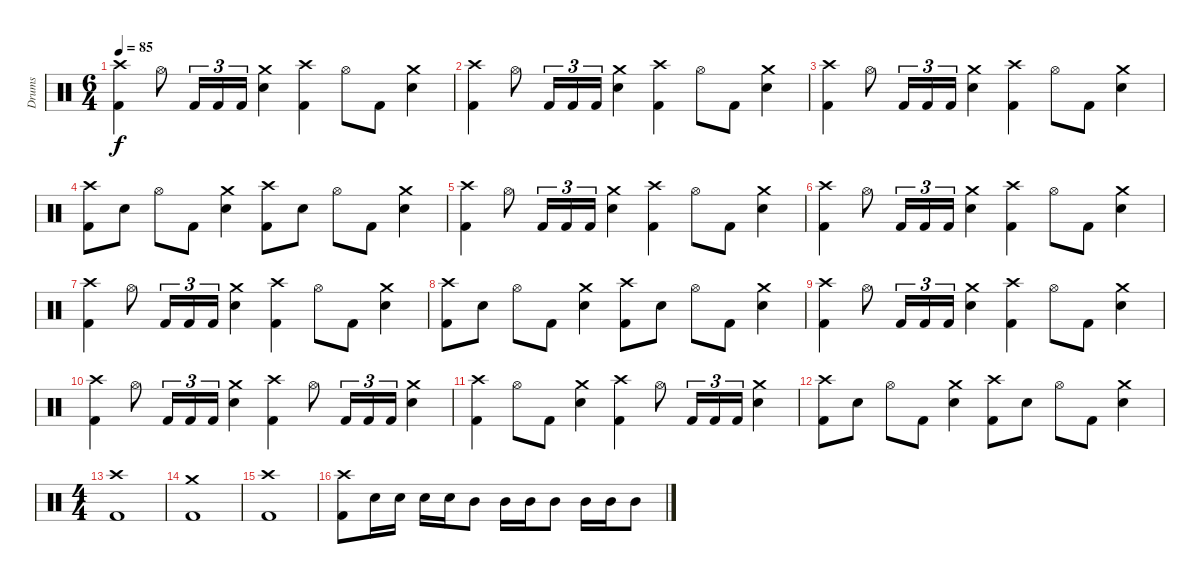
\track ("Drums" "Drums") {instrument percussion}
\staff {score}
\articulation defaults
\ts (6 4)
\tempo 85
\clef neutral
\ks c
("Crash high (hit)" "Kick (hit) 2").4{dy f} "Hi-Hat (open)".8 "Kick (hit) 2".16{tu (3 2)} "Kick (hit) 2".16{tu (3 2)} "Kick (hit) 2".16{tu (3 2)} ("Crash medium (hit)" "Electric Snare (hit)").4 ("Crash high (hit)" "Kick (hit) 2").4 "Hi-Hat (open)".8 "Kick (hit) 2".8 ("Crash medium (hit)" "Electric Snare (hit)").4 |
("Crash high (hit)" "Kick (hit) 2").4 "Hi-Hat (open)".8 "Kick (hit) 2".16{tu (3 2)} "Kick (hit) 2".16{tu (3 2)} "Kick (hit) 2".16{tu (3 2)} ("Crash medium (hit)" "Electric Snare (hit)").4 ("Crash high (hit)" "Kick (hit) 2").4 "Hi-Hat (open)".8 "Kick (hit) 2".8 ("Crash medium (hit)" "Electric Snare (hit)").4 |
("Crash high (hit)" "Kick (hit) 2").4 "Hi-Hat (open)".8 "Kick (hit) 2".16{tu (3 2)} "Kick (hit) 2".16{tu (3 2)} "Kick (hit) 2".16{tu (3 2)} ("Crash medium (hit)" "Electric Snare (hit)").4 ("Crash high (hit)" "Kick (hit) 2").4 "Hi-Hat (open)".8 "Kick (hit) 2".8 ("Crash medium (hit)" "Electric Snare (hit)").4 |
("Crash high (hit)" "Kick (hit) 2").8 "Electric Snare (hit)".8 "Hi-Hat (open)".8 "Kick (hit) 2".8 ("Crash medium (hit)" "Electric Snare (hit)").4 ("Crash high (hit)" "Kick (hit) 2").8 "Electric Snare (hit)".8 "Hi-Hat (open)".8 "Kick (hit) 2".8 ("Crash medium (hit)" "Electric Snare (hit)").4 |
("Crash high (hit)" "Kick (hit) 2").4 "Hi-Hat (open)".8 "Kick (hit) 2".16{tu (3 2)} "Kick (hit) 2".16{tu (3 2)} "Kick (hit) 2".16{tu (3 2)} ("Crash medium (hit)" "Electric Snare (hit)").4 ("Crash high (hit)" "Kick (hit) 2").4 "Hi-Hat (open)".8 "Kick (hit) 2".8 ("Crash medium (hit)" "Electric Snare (hit)").4 |
("Crash high (hit)" "Kick (hit) 2").4 "Hi-Hat (open)".8 "Kick (hit) 2".16{tu (3 2)} "Kick (hit) 2".16{tu (3 2)} "Kick (hit) 2".16{tu (3 2)} ("Crash medium (hit)" "Electric Snare (hit)").4 ("Crash high (hit)" "Kick (hit) 2").4 "Hi-Hat (open)".8 "Kick (hit) 2".8 ("Crash medium (hit)" "Electric Snare (hit)").4 |
("Crash high (hit)" "Kick (hit) 2").4 "Hi-Hat (open)".8 "Kick (hit) 2".16{tu (3 2)} "Kick (hit) 2".16{tu (3 2)} "Kick (hit) 2".16{tu (3 2)} ("Crash medium (hit)" "Electric Snare (hit)").4 ("Crash high (hit)" "Kick (hit) 2").4 "Hi-Hat (open)".8 "Kick (hit) 2".8 ("Crash medium (hit)" "Electric Snare (hit)").4 |
("Crash high (hit)" "Kick (hit) 2").8 "Electric Snare (hit)".8 "Hi-Hat (open)".8 "Kick (hit) 2".8 ("Crash medium (hit)" "Electric Snare (hit)").4 ("Crash high (hit)" "Kick (hit) 2").8 "Electric Snare (hit)".8 "Hi-Hat (open)".8 "Kick (hit) 2".8 ("Crash medium (hit)" "Electric Snare (hit)").4 |
("Crash high (hit)" "Kick (hit) 2").4 "Hi-Hat (open)".8 "Kick (hit) 2".16{tu (3 2)} "Kick (hit) 2".16{tu (3 2)} "Kick (hit) 2".16{tu (3 2)} ("Crash medium (hit)" "Electric Snare (hit)").4 ("Crash high (hit)" "Kick (hit) 2").4 "Hi-Hat (open)".8 "Kick (hit) 2".8 ("Crash medium (hit)" "Electric Snare (hit)").4 |
("Crash high (hit)" "Kick (hit) 2").4 "Hi-Hat (open)".8 "Kick (hit) 2".16{tu (3 2)} "Kick (hit) 2".16{tu (3 2)} "Kick (hit) 2".16{tu (3 2)} ("Crash medium (hit)" "Electric Snare (hit)").4 ("Crash high (hit)" "Kick (hit) 2").4 "Hi-Hat (open)".8 "Kick (hit) 2".16{tu (3 2)} "Kick (hit) 2".16{tu (3 2)} "Kick (hit) 2".16{tu (3 2)} ("Crash medium (hit)" "Electric Snare (hit)").4 |
("Crash high (hit)" "Kick (hit) 2").4 "Hi-Hat (open)".8 "Kick (hit) 2".8 ("Crash medium (hit)" "Electric Snare (hit)").4 ("Crash high (hit)" "Kick (hit) 2").4 "Hi-Hat (open)".8 "Kick (hit) 2".16{tu (3 2)} "Kick (hit) 2".16{tu (3 2)} "Kick (hit) 2".16{tu (3 2)} ("Crash medium (hit)" "Electric Snare (hit)").4 |
("Crash high (hit)" "Kick (hit) 2").8 "Electric Snare (hit)".8 "Hi-Hat (open)".8 "Kick (hit) 2".8 ("Crash medium (hit)" "Electric Snare (hit)").4 ("Crash high (hit)" "Kick (hit) 2").8 "Electric Snare (hit)".8 "Hi-Hat (open)".8 "Kick (hit) 2".8 ("Crash medium (hit)" "Electric Snare (hit)").4 |
\ts (4 4)
("Crash high (hit)" "Kick (hit) 2").1 |
("Crash medium (hit)" "Kick (hit) 2").1 |
("Crash high (hit)" "Kick (hit) 2").1 |
("Crash high (hit)" "Kick (hit) 2").8 "Electric Snare (hit)".16 "Electric Snare (hit)".16 "Electric Snare (hit)".16 "Electric Snare (hit)".16 "Mid Tom (hit)".8 "Mid Tom (hit)".16 "Mid Tom (hit)".16 "Mid Tom (hit)".8 "Mid Tom (hit)".16 "Mid Tom (hit)".16 "Mid Tom (hit)".8
